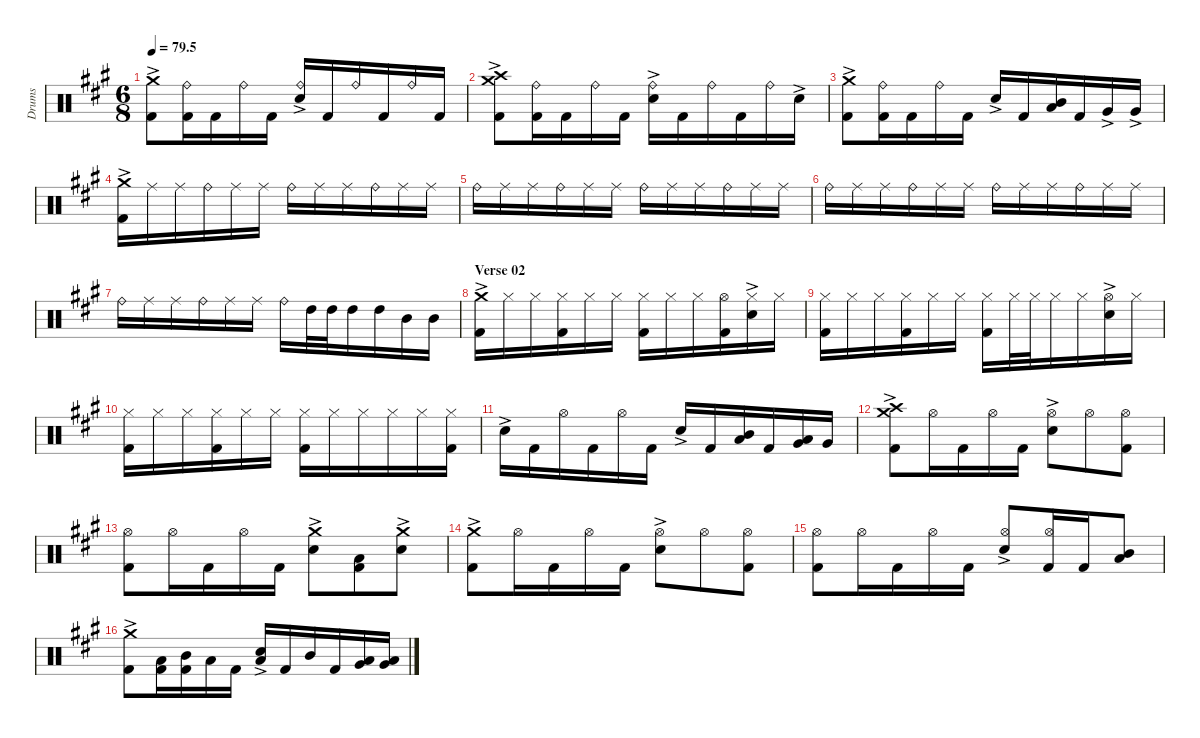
\defaultSystemsLayout 4
\hideDynamics
\bracketExtendMode nobrackets
\otherSystemsTrackNameOrientation horizontal
\track ("Drumkit (don't unmute)" "Drums") {mute instrument percussion}
\staff {score}
\articulation defaults
\ts (6 8)
\tempo
79.5
\accidentals auto
\clef neutral
\ottava regular
\simile none
\ks a
("Crash medium (hit)"{ac acc forcenatural} "Kick (hit) 2"{acc forcenatural}).8{dy f beam Down} ("Ride (bell)"{acc forcenatural} "Kick (hit) 2"{acc forcenatural}).16{beam Down} "Kick (hit) 2"{acc forcenatural}.16{beam Down} "Ride (bell)"{acc forcenatural}.16{beam Down} "Kick (hit) 2"{acc forcenatural}.16{beam Down} ("Ride (bell)"{acc forcenatural} "Snare (hit) 2"{ac acc forcenatural}).16{beam Up} "Kick (hit) 2"{acc forcenatural}.16{beam Up} "Ride (bell)"{acc forcenatural}.16{beam Up} "Kick (hit) 2"{acc forcenatural}.16{beam Up} "Ride (bell)"{acc forcenatural}.16{beam Up} "Kick (hit) 2"{acc forcenatural}.16{beam Up} |
("Crash medium (hit)"{ac acc forcenatural} "Crash high (hit)"{acc forcenatural} "Kick (hit) 2"{acc forcenatural}).8{beam Down} ("Ride (bell)"{acc forcenatural} "Kick (hit) 2"{acc forcenatural}).16{beam Down} "Kick (hit) 2"{acc forcenatural}.16{beam Down} "Ride (bell)"{acc forcenatural}.16{beam Down} "Kick (hit) 2"{acc forcenatural}.16{beam Down} ("Ride (bell)"{acc forcenatural} "Snare (hit) 2"{ac acc forcenatural}).16{beam Down} "Kick (hit) 2"{acc forcenatural}.16{beam Down} "Ride (bell)"{acc forcenatural}.16{beam Down} "Kick (hit) 2"{acc forcenatural}.16{beam Down} "Ride (bell)"{acc forcenatural}.16{beam Down} "Snare (hit) 2"{ac acc forcenatural}.16{beam Down} |
("Crash medium (hit)"{ac acc forcenatural} "Kick (hit) 2"{acc forcenatural}).8{beam Down} ("Ride (bell)"{acc forcenatural} "Kick (hit) 2"{acc forcenatural}).16{beam Down} "Kick (hit) 2"{acc forcenatural}.16{beam Down} "Ride (bell)"{acc forcenatural}.16{beam Down} "Kick (hit) 2"{acc forcenatural}.16{beam Down} "Snare (hit) 2"{ac acc forcenatural}.16{beam Up} "Kick (hit) 2"{acc forcenatural}.16{beam Up} ("Mid Tom (hit)"{acc forcenatural} "Low Tom (hit)"{acc forcenatural}).16{beam Up} "Kick (hit) 2"{acc forcenatural}.16{beam Up} "Very Low Tom (hit)"{ac acc forcenatural}.16{beam Up} "Very Low Tom (hit)"{ac acc forcenatural}.16{beam Up} |
("Crash medium (hit)"{ac acc forcenatural} "Kick (hit) 2"{acc forcenatural}).16{beam Down} "Ride (middle)"{acc forcenatural}.16{beam Down} "Ride (middle)"{acc forcenatural}.16{beam Down} "Ride (bell)"{acc forcenatural}.16{beam Down} "Ride (middle)"{acc forcenatural}.16{beam Down} "Ride (middle)"{acc forcenatural}.16{beam Down} "Ride (bell)"{acc forcenatural}.16{beam Down} "Ride (middle)"{acc forcenatural}.16{beam Down} "Ride (middle)"{acc forcenatural}.16{beam Down} "Ride (bell)"{acc forcenatural}.16{beam Down} "Ride (middle)"{acc forcenatural}.16{beam Down} "Ride (middle)"{acc forcenatural}.16{beam Down} |
"Ride (bell)"{acc forcenatural}.16{beam Down} "Ride (middle)"{acc forcenatural}.16{beam Down} "Ride (middle)"{acc forcenatural}.16{beam Down} "Ride (bell)"{acc forcenatural}.16{beam Down} "Ride (middle)"{acc forcenatural}.16{beam Down} "Ride (middle)"{acc forcenatural}.16{beam Down} "Ride (bell)"{acc forcenatural}.16{beam Down} "Ride (middle)"{acc forcenatural}.16{beam Down} "Ride (middle)"{acc forcenatural}.16{beam Down} "Ride (bell)"{acc forcenatural}.16{beam Down} "Ride (middle)"{acc forcenatural}.16{beam Down} "Ride (middle)"{acc forcenatural}.16{beam Down} |
\scale
0.345779 "Ride (bell)"{acc forcenatural}.16{beam Down} "Ride (middle)"{acc forcenatural}.16{beam Down} "Ride (middle)"{acc forcenatural}.16{beam Down} "Ride (bell)"{acc forcenatural}.16{beam Down} "Ride (middle)"{acc forcenatural}.16{beam Down} "Ride (middle)"{acc forcenatural}.16{beam Down} "Ride (bell)"{acc forcenatural}.16{beam Down} "Ride (middle)"{acc forcenatural}.16{beam Down} "Ride (middle)"{acc forcenatural}.16{beam Down} "Ride (bell)"{acc forcenatural}.16{beam Down} "Ride (middle)"{acc forcenatural}.16{beam Down} "Ride (middle)"{acc forcenatural}.16{beam Down} |
\scale
0.342532 "Ride (bell)"{acc forcenatural}.16{beam Down} "Ride (middle)"{acc forcenatural}.16{beam Down} "Ride (middle)"{acc forcenatural}.16{beam Down} "Ride (bell)"{acc forcenatural}.16{beam Down} "Ride (middle)"{acc forcenatural}.16{beam Down} "Ride (middle)"{acc forcenatural}.16{beam Down} "Ride (bell)"{acc forcenatural}.16{beam Down} "High Tom (hit)"{acc forcenatural}.32{beam Down} "High Tom (hit)"{acc forcenatural}.32{beam Down} "High Tom (hit)"{acc forcenatural}.16{beam Down} "High Tom (hit)"{acc forcenatural}.16{beam Down} "Mid Tom (hit)"{acc forcenatural}.16{beam Down} "Mid Tom (hit)"{acc forcenatural}.16{beam Down} |
\section ("" "Verse 02")
\scale
0.311688 ("Crash medium (hit)"{ac acc forcenatural} "Kick (hit) 2"{acc forcenatural}).16{beam Down} "Hi-Hat (closed)"{acc forcenatural}.16{beam Down} "Hi-Hat (closed)"{acc forcenatural}.16{beam Down} ("Hi-Hat (closed)"{acc forcenatural} "Kick (hit) 2"{acc forcenatural}).16{beam Down} "Hi-Hat (closed)"{acc forcenatural}.16{beam Down} "Hi-Hat (closed)"{acc forcenatural}.16{beam Down} ("Hi-Hat (closed)"{acc forcenatural} "Kick (hit) 2"{acc forcenatural}).16{beam Down} "Hi-Hat (closed)"{acc forcenatural}.16{beam Down} "Hi-Hat (closed)"{acc forcenatural}.16{beam Down} ("Kick (hit) 2"{acc forcenatural} "Hi-Hat (open)"{acc forcenatural}).16{beam Down} ("Hi-Hat (closed)"{acc forcenatural} "Snare (hit) 2"{ac acc forcenatural}).16{beam Down} "Hi-Hat (closed)"{acc forcenatural}.16{beam Down} |
("Hi-Hat (closed)"{acc forcenatural} "Kick (hit) 2"{acc forcenatural}).16{beam Down} "Hi-Hat (closed)"{acc forcenatural}.16{beam Down} "Hi-Hat (closed)"{acc forcenatural}.16{beam Down} ("Hi-Hat (closed)"{acc forcenatural} "Kick (hit) 2"{acc forcenatural}).16{beam Down} "Hi-Hat (closed)"{acc forcenatural}.16{beam Down} "Hi-Hat (closed)"{acc forcenatural}.16{beam Down} ("Hi-Hat (closed)"{acc forcenatural} "Kick (hit) 2"{acc forcenatural}).16{beam Down} "Hi-Hat (closed)"{acc forcenatural}.32{beam Down} "Hi-Hat (closed)"{acc forcenatural}.32{beam Down} "Hi-Hat (closed)"{acc forcenatural}.16{beam Down} "Hi-Hat (closed)"{acc forcenatural}.16{beam Down} ("Hi-Hat (open)"{acc forcenatural} "Snare (hit) 2"{ac acc forcenatural}).16{beam Down} "Hi-Hat (closed)"{acc forcenatural}.16{beam Down} |
("Hi-Hat (closed)"{acc forcenatural} "Kick (hit) 2"{acc forcenatural}).16{beam Down} "Hi-Hat (closed)"{acc forcenatural}.16{beam Down} "Hi-Hat (closed)"{acc forcenatural}.16{beam Down} ("Hi-Hat (closed)"{acc forcenatural} "Kick (hit) 2"{acc forcenatural}).16{beam Down} "Hi-Hat (closed)"{acc forcenatural}.16{beam Down} "Hi-Hat (closed)"{acc forcenatural}.16{beam Down} ("Hi-Hat (closed)"{acc forcenatural} "Kick (hit) 2"{acc forcenatural}).16{beam Down} "Hi-Hat (closed)"{acc forcenatural}.16{beam Down} "Hi-Hat (closed)"{acc forcenatural}.16{beam Down} "Hi-Hat (closed)"{acc forcenatural}.16{beam Down} "Hi-Hat (closed)"{acc forcenatural}.16{beam Down} ("Hi-Hat (closed)"{acc forcenatural} "Kick (hit) 2"{acc forcenatural}).16{beam Down} |
"Snare (hit) 2"{ac acc forcenatural}.16{beam Down} "Kick (hit) 2"{acc forcenatural}.16{beam Down} "Hi-Hat (open)"{acc forcenatural}.16{beam Down} "Kick (hit) 2"{acc forcenatural}.16{beam Down} "Hi-Hat (open)"{acc forcenatural}.16{beam Down} "Kick (hit) 2"{acc forcenatural}.16{beam Down} "Snare (hit) 2"{ac acc forcenatural}.16{beam Up} "Kick (hit) 2"{acc forcenatural}.16{beam Up} ("Mid Tom (hit)"{acc forcenatural} "Low Tom (hit)"{acc forcenatural}).16{beam Up} "Kick (hit) 2"{acc forcenatural}.16{beam Up} ("Low Tom (hit)"{acc forcenatural} "Very Low Tom (hit)"{acc forcenatural}).16{beam Up} "Very Low Tom (hit)"{acc forcenatural}.16{beam Up} |
("Crash medium (hit)"{ac acc forcenatural} "Crash high (hit)"{acc forcenatural} "Kick (hit) 2"{acc forcenatural}).8{beam Down} "Hi-Hat (open)"{acc forcenatural}.16{beam Down} "Kick (hit) 2"{acc forcenatural}.16{beam Down} "Hi-Hat (open)"{acc forcenatural}.16{beam Down} "Kick (hit) 2"{acc forcenatural}.16{beam Down} ("Hi-Hat (open)"{acc forcenatural} "Snare (hit) 2"{ac acc forcenatural}).8{beam Down} "Hi-Hat (open)"{acc forcenatural}.8{beam Down} ("Hi-Hat (open)"{acc forcenatural} "Kick (hit) 2"{acc forcenatural}).8{beam Down} |
("Hi-Hat (open)"{acc forcenatural} "Kick (hit) 2"{acc forcenatural}).8{beam Down} "Hi-Hat (open)"{acc forcenatural}.16{beam Down} "Kick (hit) 2"{acc forcenatural}.16{beam Down} "Hi-Hat (open)"{acc forcenatural}.16{beam Down} "Kick (hit) 2"{acc forcenatural}.16{beam Down} ("Crash medium (hit)"{ac acc forcenatural} "Snare (hit) 2"{ac acc forcenatural}).8{beam Down} ("Low Tom (hit)"{acc forcenatural} "Kick (hit) 2"{acc forcenatural}).8{beam Down} ("Crash medium (hit)"{ac acc forcenatural} "Snare (hit) 2"{ac acc forcenatural}).8{beam Down} |
("Crash medium (hit)"{ac acc forcenatural} "Kick (hit) 2"{acc forcenatural}).8{beam Down} "Hi-Hat (open)"{acc forcenatural}.16{beam Down} "Kick (hit) 2"{acc forcenatural}.16{beam Down} "Hi-Hat (open)"{acc forcenatural}.16{beam Down} "Kick (hit) 2"{acc forcenatural}.16{beam Down} ("Hi-Hat (open)"{acc forcenatural} "Snare (hit) 2"{ac acc forcenatural}).8{beam Down} "Hi-Hat (open)"{acc forcenatural}.8{beam Down} ("Hi-Hat (open)"{acc forcenatural} "Kick (hit) 2"{acc forcenatural}).8{beam Down} |
("Hi-Hat (open)"{acc forcenatural} "Kick (hit) 2"{acc forcenatural}).8{beam Down} "Hi-Hat (open)"{acc forcenatural}.16{beam Down} "Kick (hit) 2"{acc forcenatural}.16{beam Down} "Hi-Hat (open)"{acc forcenatural}.16{beam Down} "Kick (hit) 2"{acc forcenatural}.16{beam Down} ("Hi-Hat (open)"{acc forcenatural} "Snare (hit) 2"{ac acc forcenatural}).8{beam Up} ("Hi-Hat (open)"{acc forcenatural} "Kick (hit) 2"{acc forcenatural}).16{beam Up} "Kick (hit) 2"{acc forcenatural}.16{beam Up} ("Mid Tom (hit)"{acc forcenatural} "Low Tom (hit)"{acc forcenatural}).8{beam Up} |
("Crash medium (hit)"{ac acc forcenatural} "Kick (hit) 2"{acc forcenatural}).8{beam Down} ("Low Tom (hit)"{acc forcenatural} "Kick (hit) 2"{acc forcenatural}).16{beam Down} ("Mid Tom (hit)"{acc forcenatural} "Kick (hit) 2"{acc forcenatural}).16{beam Down} "Low Tom (hit)"{acc forcenatural}.16{beam Down} "Kick (hit) 2"{acc forcenatural}.16{beam Down} ("Snare (hit) 2"{ac acc forcenatural} "Low Tom (hit)"{acc forcenatural}).16{beam Up} "Kick (hit) 2"{acc forcenatural}.16{beam Up} "Mid Tom (hit)"{acc forcenatural}.16{beam Up} "Kick (hit) 2"{acc forcenatural}.16{beam Up} ("Low Tom (hit)"{acc forcenatural} "Very Low Tom (hit)"{acc forcenatural}).16{beam Up} ("Low Tom (hit)"{acc forcenatural} "Very Low Tom (hit)"{acc forcenatural}).16{beam Up}
